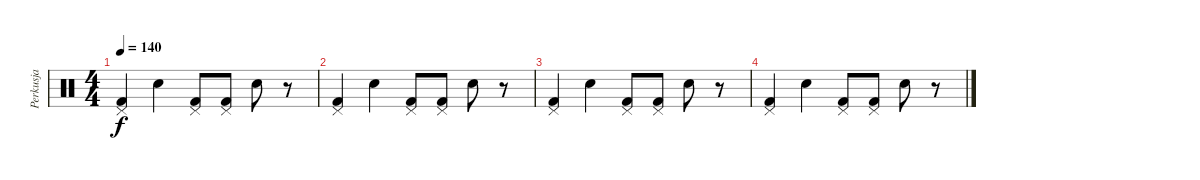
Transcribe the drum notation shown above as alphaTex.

\track ("Perkusja" "Perkusja") {instrument percussion}
\staff {score}
\articulation defaults
\ts (4 4)
\tempo 140
\clef neutral
\ks c
("Pedal Hi-Hat (hit)" "Kick (hit) 2").4{dy f} "Snare (hit) 2".4 ("Pedal Hi-Hat (hit)" "Kick (hit) 2").8 ("Pedal Hi-Hat (hit)" "Kick (hit) 2").8 "Snare (hit) 2".8 r.8 |
("Pedal Hi-Hat (hit)" "Kick (hit) 2").4 "Snare (hit) 2".4 ("Pedal Hi-Hat (hit)" "Kick (hit) 2").8 ("Pedal Hi-Hat (hit)" "Kick (hit) 2").8 "Snare (hit) 2".8 r.8 |
("Pedal Hi-Hat (hit)" "Kick (hit) 2").4 "Snare (hit) 2".4 ("Pedal Hi-Hat (hit)" "Kick (hit) 2").8 ("Pedal Hi-Hat (hit)" "Kick (hit) 2").8 "Snare (hit) 2".8 r.8 |
("Pedal Hi-Hat (hit)" "Kick (hit) 2").4 "Snare (hit) 2".4 ("Pedal Hi-Hat (hit)" "Kick (hit) 2").8 ("Pedal Hi-Hat (hit)" "Kick (hit) 2").8 "Snare (hit) 2".8 r.8
